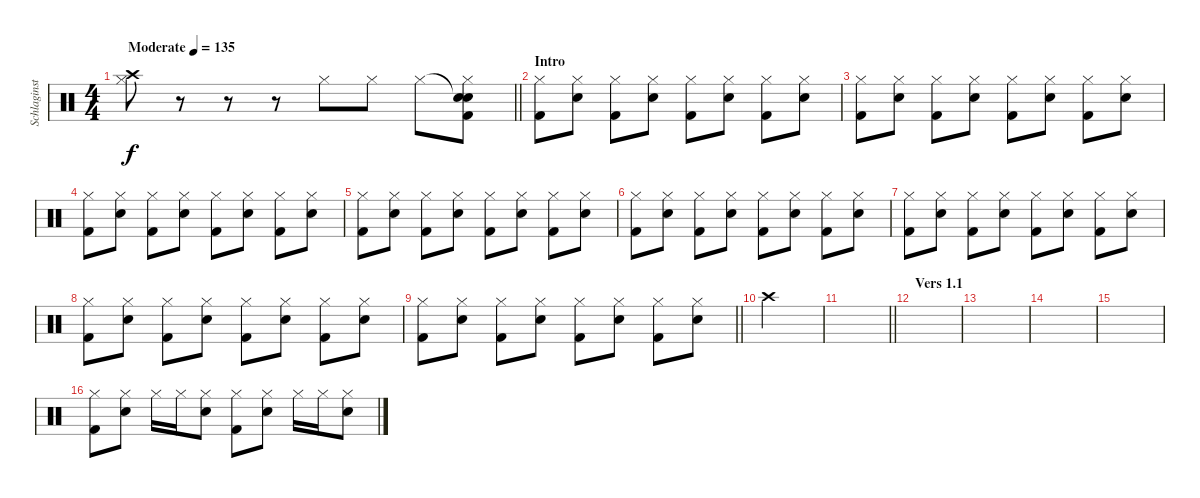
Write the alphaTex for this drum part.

\track ("Schlaginstrumente - Auswahl" "Schlaginst") {instrument percussion}
\staff {score}
\articulation defaults
\ts (4 4)
\tempo (135 "Moderate")
\clef neutral
\barLineRight lightlight
\ks c
("Crash high (hit)" "Hi-Hat (closed)").8{dy f} r.8 r.8 r.8 "Hi-Hat (closed)".8 "Hi-Hat (closed)".8 "Hi-Hat (closed)".8 ("Snare (hit)"{t} "Hi-Hat (closed)" "Snare (hit) 2" "Kick (hit) 2").8 |
\section ("" "Intro")
("Hi-Hat (closed)" "Kick (hit) 2").8 ("Hi-Hat (closed)" "Snare (hit) 2").8 ("Hi-Hat (closed)" "Kick (hit) 2").8 ("Hi-Hat (closed)" "Snare (hit) 2").8 ("Hi-Hat (closed)" "Kick (hit) 2").8 ("Hi-Hat (closed)" "Snare (hit) 2").8 ("Hi-Hat (closed)" "Kick (hit) 2").8 ("Hi-Hat (closed)" "Snare (hit) 2").8 |
("Hi-Hat (closed)" "Kick (hit) 2").8 ("Hi-Hat (closed)" "Snare (hit) 2").8 ("Hi-Hat (closed)" "Kick (hit) 2").8 ("Hi-Hat (closed)" "Snare (hit) 2").8 ("Hi-Hat (closed)" "Kick (hit) 2").8 ("Hi-Hat (closed)" "Snare (hit) 2").8 ("Hi-Hat (closed)" "Kick (hit) 2").8 ("Hi-Hat (closed)" "Snare (hit) 2").8 |
("Hi-Hat (closed)" "Kick (hit) 2").8 ("Hi-Hat (closed)" "Snare (hit) 2").8 ("Hi-Hat (closed)" "Kick (hit) 2").8 ("Hi-Hat (closed)" "Snare (hit) 2").8 ("Hi-Hat (closed)" "Kick (hit) 2").8 ("Hi-Hat (closed)" "Snare (hit) 2").8 ("Hi-Hat (closed)" "Kick (hit) 2").8 ("Hi-Hat (closed)" "Snare (hit) 2").8 |
("Hi-Hat (closed)" "Kick (hit) 2").8 ("Hi-Hat (closed)" "Snare (hit) 2").8 ("Hi-Hat (closed)" "Kick (hit) 2").8 ("Hi-Hat (closed)" "Snare (hit) 2").8 ("Hi-Hat (closed)" "Kick (hit) 2").8 ("Hi-Hat (closed)" "Snare (hit) 2").8 ("Hi-Hat (closed)" "Kick (hit) 2").8 ("Hi-Hat (closed)" "Snare (hit) 2").8 |
("Hi-Hat (closed)" "Kick (hit) 2").8 ("Hi-Hat (closed)" "Snare (hit) 2").8 ("Hi-Hat (closed)" "Kick (hit) 2").8 ("Hi-Hat (closed)" "Snare (hit) 2").8 ("Hi-Hat (closed)" "Kick (hit) 2").8 ("Hi-Hat (closed)" "Snare (hit) 2").8 ("Hi-Hat (closed)" "Kick (hit) 2").8 ("Hi-Hat (closed)" "Snare (hit) 2").8 |
("Hi-Hat (closed)" "Kick (hit) 2").8 ("Hi-Hat (closed)" "Snare (hit) 2").8 ("Hi-Hat (closed)" "Kick (hit) 2").8 ("Hi-Hat (closed)" "Snare (hit) 2").8 ("Hi-Hat (closed)" "Kick (hit) 2").8 ("Hi-Hat (closed)" "Snare (hit) 2").8 ("Hi-Hat (closed)" "Kick (hit) 2").8 ("Hi-Hat (closed)" "Snare (hit) 2").8 |
("Hi-Hat (closed)" "Kick (hit) 2").8 ("Hi-Hat (closed)" "Snare (hit) 2").8 ("Hi-Hat (closed)" "Kick (hit) 2").8 ("Hi-Hat (closed)" "Snare (hit) 2").8 ("Hi-Hat (closed)" "Kick (hit) 2").8 ("Hi-Hat (closed)" "Snare (hit) 2").8 ("Hi-Hat (closed)" "Kick (hit) 2").8 ("Hi-Hat (closed)" "Snare (hit) 2").8 |
\barLineRight lightlight
("Hi-Hat (closed)" "Kick (hit) 2").8 ("Hi-Hat (closed)" "Snare (hit) 2").8 ("Hi-Hat (closed)" "Kick (hit) 2").8 ("Hi-Hat (closed)" "Snare (hit) 2").8 ("Hi-Hat (closed)" "Kick (hit) 2").8 ("Hi-Hat (closed)" "Snare (hit) 2").8 ("Hi-Hat (closed)" "Kick (hit) 2").8 ("Hi-Hat (closed)" "Snare (hit) 2").8 |
"Crash high (hit)".2 |
\barLineRight lightlight
|
\section ("" "Vers 1.1")
|
|
|
|
("Hi-Hat (closed)" "Kick (hit) 2").8 ("Hi-Hat (closed)" "Snare (hit) 2").8 "Hi-Hat (closed)".16 "Hi-Hat (closed)".16 ("Hi-Hat (closed)" "Snare (hit) 2").8 ("Hi-Hat (closed)" "Kick (hit) 2").8 ("Hi-Hat (closed)" "Snare (hit) 2").8 "Hi-Hat (closed)".16 "Hi-Hat (closed)".16 ("Hi-Hat (closed)" "Snare (hit) 2").8
